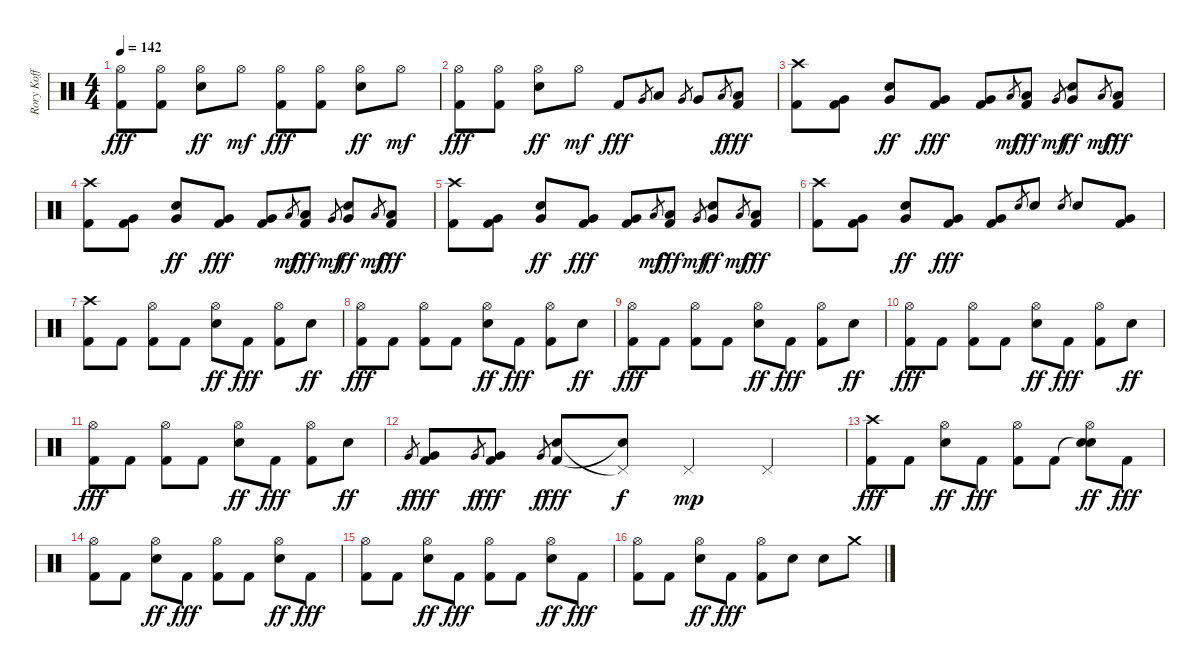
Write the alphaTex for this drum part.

\track ("Rory Koff" "Rory Koff") {instrument percussion}
\staff {score}
\articulation defaults
\ts (4 4)
\tempo 142
\clef neutral
\ks c
("Hi-Hat (open)" "Kick (hit) 2").8{dy fff} ("Hi-Hat (open)" "Kick (hit) 2").8 ("Hi-Hat (open)" "Electric Snare (hit)").8{dy ff} "Hi-Hat (open)".8{dy mf} ("Hi-Hat (open)" "Kick (hit) 2").8{dy fff} ("Hi-Hat (open)" "Kick (hit) 2").8 ("Hi-Hat (open)" "Electric Snare (hit)").8{dy ff} "Hi-Hat (open)".8{dy mf} |
("Hi-Hat (open)" "Kick (hit) 2").8{dy fff} ("Hi-Hat (open)" "Kick (hit) 2").8 ("Hi-Hat (open)" "Electric Snare (hit)").8{dy ff} "Hi-Hat (open)".8{dy mf} "Kick (hit) 2".8{dy fff} "Very Low Tom (hit)".8{gr} "Low Tom (hit)".8 "Very Low Tom (hit)".8{gr} "Very Low Tom (hit)".8 "Low Floor Tom (hit)".8{gr dy f} ("Low Floor Tom (hit)" "Kick (hit) 2").8{dy fff} |
("Crash high (hit)" "Kick (hit) 2").8 ("Very Low Tom (hit)" "Kick (hit) 2").8 ("Very Low Tom (hit)" "Electric Snare (hit)").8{dy ff} ("Very Low Tom (hit)" "Kick (hit) 2").8{dy fff} ("Very Low Tom (hit)" "Kick (hit) 2").8 "Low Tom (hit)".8{gr dy mf} ("Low Tom (hit)" "Kick (hit) 2").8{dy fff} "Very Low Tom (hit)".8{gr dy mf} ("Very Low Tom (hit)" "Electric Snare (hit)").8{dy ff} "Low Floor Tom (hit)".8{gr dy mf} ("Low Floor Tom (hit)" "Kick (hit) 2").8{dy fff} |
("Crash high (hit)" "Kick (hit) 2").8 ("Very Low Tom (hit)" "Kick (hit) 2").8 ("Very Low Tom (hit)" "Electric Snare (hit)").8{dy ff} ("Very Low Tom (hit)" "Kick (hit) 2").8{dy fff} ("Very Low Tom (hit)" "Kick (hit) 2").8 "Low Tom (hit)".8{gr dy mf} ("Low Tom (hit)" "Kick (hit) 2").8{dy fff} "Very Low Tom (hit)".8{gr dy mf} ("Very Low Tom (hit)" "Electric Snare (hit)").8{dy ff} "Low Floor Tom (hit)".8{gr dy mf} ("Low Floor Tom (hit)" "Kick (hit) 2").8{dy fff} |
("Crash high (hit)" "Kick (hit) 2").8 ("Very Low Tom (hit)" "Kick (hit) 2").8 ("Very Low Tom (hit)" "Electric Snare (hit)").8{dy ff} ("Very Low Tom (hit)" "Kick (hit) 2").8{dy fff} ("Very Low Tom (hit)" "Kick (hit) 2").8 "Low Tom (hit)".8{gr dy mf} ("Low Tom (hit)" "Kick (hit) 2").8{dy fff} "Very Low Tom (hit)".8{gr dy mf} ("Very Low Tom (hit)" "Electric Snare (hit)").8{dy ff} "Low Floor Tom (hit)".8{gr dy mf} ("Low Floor Tom (hit)" "Kick (hit) 2").8{dy fff} |
("Crash high (hit)" "Kick (hit) 2").8 ("Very Low Tom (hit)" "Kick (hit) 2").8 ("Very Low Tom (hit)" "Electric Snare (hit)").8{dy ff} ("Very Low Tom (hit)" "Kick (hit) 2").8{dy fff} ("Very Low Tom (hit)" "Kick (hit) 2").8 "Electric Snare (hit)".8{gr} "Electric Snare (hit)".8 "Electric Snare (hit)".8{gr} "Electric Snare (hit)".8 ("Very Low Tom (hit)" "Kick (hit) 2").8 |
("Crash high (hit)" "Kick (hit) 2").8 "Kick (hit) 2".8 ("Hi-Hat (open)" "Kick (hit) 2").8 "Kick (hit) 2".8 ("Hi-Hat (open)" "Electric Snare (hit)").8{dy ff} "Kick (hit) 2".8{dy fff} ("Hi-Hat (open)" "Kick (hit) 2").8 "Electric Snare (hit)".8{dy ff} |
("Hi-Hat (open)" "Kick (hit) 2").8{dy fff} "Kick (hit) 2".8 ("Hi-Hat (open)" "Kick (hit) 2").8 "Kick (hit) 2".8 ("Hi-Hat (open)" "Electric Snare (hit)").8{dy ff} "Kick (hit) 2".8{dy fff} ("Hi-Hat (open)" "Kick (hit) 2").8 "Electric Snare (hit)".8{dy ff} |
("Hi-Hat (open)" "Kick (hit) 2").8{dy fff} "Kick (hit) 2".8 ("Hi-Hat (open)" "Kick (hit) 2").8 "Kick (hit) 2".8 ("Hi-Hat (open)" "Electric Snare (hit)").8{dy ff} "Kick (hit) 2".8{dy fff} ("Hi-Hat (open)" "Kick (hit) 2").8 "Electric Snare (hit)".8{dy ff} |
("Hi-Hat (open)" "Kick (hit) 2").8{dy fff} "Kick (hit) 2".8 ("Hi-Hat (open)" "Kick (hit) 2").8 "Kick (hit) 2".8 ("Hi-Hat (open)" "Electric Snare (hit)").8{dy ff} "Kick (hit) 2".8{dy fff} ("Hi-Hat (open)" "Kick (hit) 2").8 "Electric Snare (hit)".8{dy ff} |
("Hi-Hat (open)" "Kick (hit) 2").8{dy fff} "Kick (hit) 2".8 ("Hi-Hat (open)" "Kick (hit) 2").8 "Kick (hit) 2".8 ("Hi-Hat (open)" "Electric Snare (hit)").8{dy ff} "Kick (hit) 2".8{dy fff} ("Hi-Hat (open)" "Kick (hit) 2").8 "Electric Snare (hit)".8{dy ff} |
"Very Low Tom (hit)".8{gr dy f} ("Very Low Tom (hit)" "Kick (hit) 2").8{dy fff} "Very Low Tom (hit)".8{gr dy f} ("Very Low Tom (hit)" "Kick (hit) 2").8{dy fff} "Very Low Tom (hit)".8{gr dy f} ("Electric Snare (hit)" "Kick (hit) 2").8{dy fff} ("Pedal Hi-Hat (hit)"{t} "Snare (hit)"{t}).8{dy f} "Pedal Hi-Hat (hit)".4{dy mp} "Pedal Hi-Hat (hit)".4 |
("Crash high (hit)" "Kick (hit) 2").8{dy fff} "Kick (hit) 2".8 ("Hi-Hat (open)" "Electric Snare (hit)").8{dy ff} "Kick (hit) 2".8{dy fff} ("Hi-Hat (open)" "Kick (hit) 2").8 "Kick (hit) 2".8 ("Snare (hit)"{t} "Hi-Hat (open)" "Electric Snare (hit)").8{dy ff} "Kick (hit) 2".8{dy fff} |
("Hi-Hat (open)" "Kick (hit) 2").8 "Kick (hit) 2".8 ("Hi-Hat (open)" "Electric Snare (hit)").8{dy ff} "Kick (hit) 2".8{dy fff} ("Hi-Hat (open)" "Kick (hit) 2").8 "Kick (hit) 2".8 ("Hi-Hat (open)" "Electric Snare (hit)").8{dy ff} "Kick (hit) 2".8{dy fff} |
("Hi-Hat (open)" "Kick (hit) 2").8 "Kick (hit) 2".8 ("Hi-Hat (open)" "Electric Snare (hit)").8{dy ff} "Kick (hit) 2".8{dy fff} ("Hi-Hat (open)" "Kick (hit) 2").8 "Kick (hit) 2".8 ("Hi-Hat (open)" "Electric Snare (hit)").8{dy ff} "Kick (hit) 2".8{dy fff} |
("Hi-Hat (open)" "Kick (hit) 2").8 "Kick (hit) 2".8 ("Hi-Hat (open)" "Electric Snare (hit)").8{dy ff} "Kick (hit) 2".8{dy fff} ("Hi-Hat (open)" "Kick (hit) 2").8 "Electric Snare (hit)".8 "Electric Snare (hit)".8 "Crash medium (hit)".8
